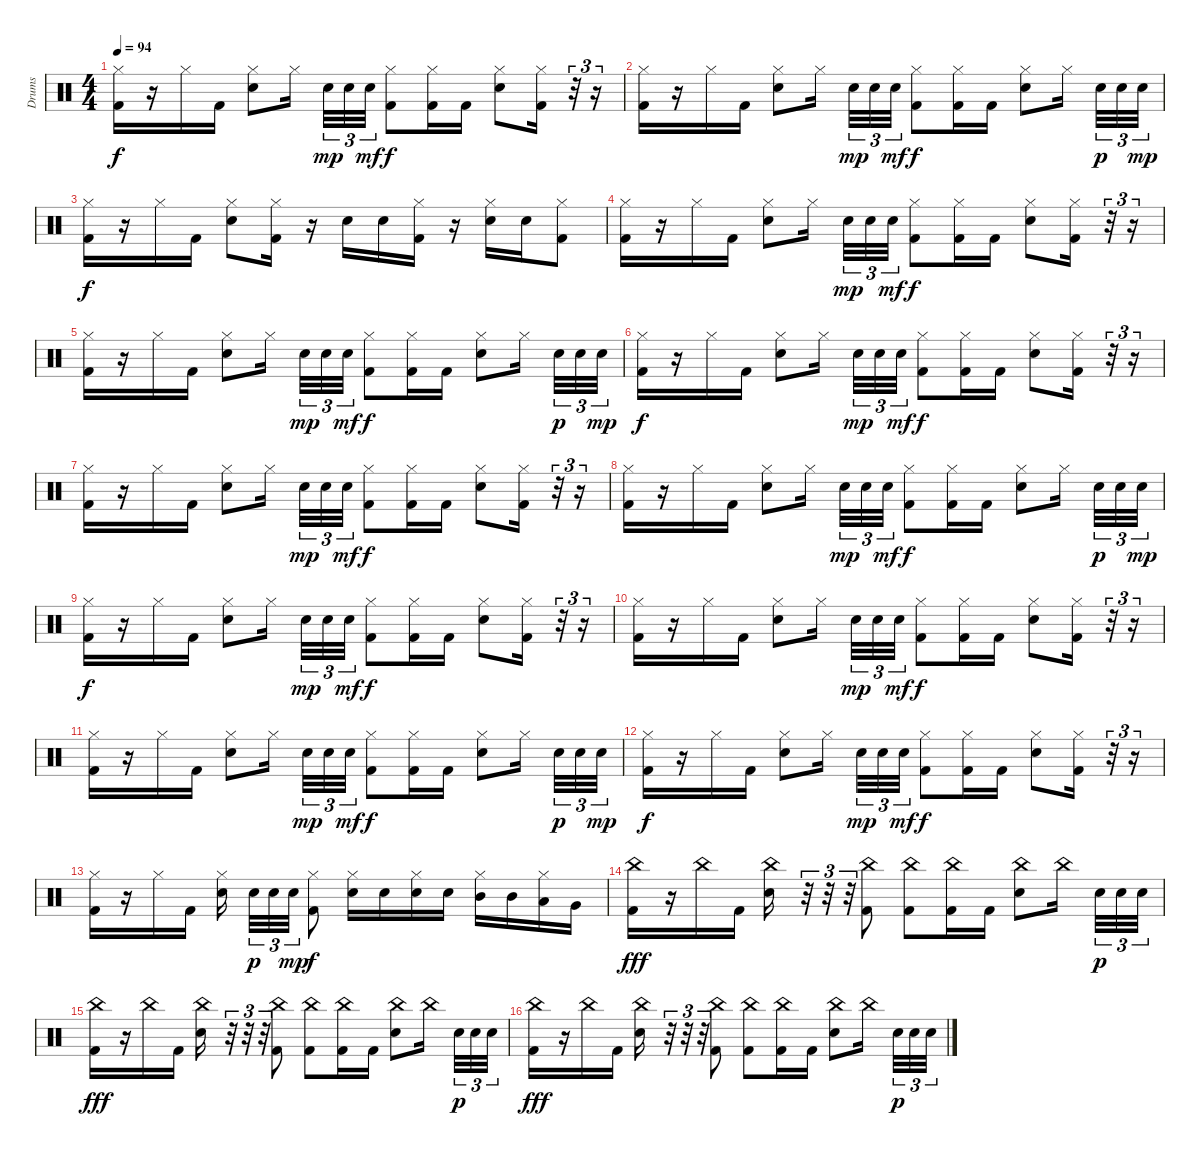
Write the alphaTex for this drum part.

\track ("Drums" "Drums") {instrument percussion}
\staff {score}
\articulation defaults
\ts (4 4)
\tempo 94
\clef neutral
\ks c
("Hi-Hat (closed)" "Kick (hit) 2").16{dy f} r.16 "Hi-Hat (closed)".16 "Kick (hit) 2".16 ("Hi-Hat (closed)" "Electric Snare (hit)").8 "Hi-Hat (closed)".16 "Electric Snare (hit)".32{tu (3 2) dy mp} "Electric Snare (hit)".32{tu (3 2)} "Electric Snare (hit)".32{tu (3 2) dy mf} ("Hi-Hat (closed)" "Kick (hit) 2").8{dy f} ("Hi-Hat (closed)" "Kick (hit) 2").16 "Kick (hit) 2".16 ("Hi-Hat (closed)" "Electric Snare (hit)").8 ("Hi-Hat (closed)" "Kick (hit) 2").16 r.32{tu (3 2)} r.16{tu (3 2)} |
("Hi-Hat (closed)" "Kick (hit) 2").16 r.16 "Hi-Hat (closed)".16 "Kick (hit) 2".16 ("Hi-Hat (closed)" "Electric Snare (hit)").8 "Hi-Hat (closed)".16 "Electric Snare (hit)".32{tu (3 2) dy mp} "Electric Snare (hit)".32{tu (3 2)} "Electric Snare (hit)".32{tu (3 2) dy mf} ("Hi-Hat (closed)" "Kick (hit) 2").8{dy f} ("Hi-Hat (closed)" "Kick (hit) 2").16 "Kick (hit) 2".16 ("Hi-Hat (closed)" "Electric Snare (hit)").8 "Hi-Hat (closed)".16 "Electric Snare (hit)".32{tu (3 2) dy p} "Electric Snare (hit)".32{tu (3 2)} "Electric Snare (hit)".32{tu (3 2) dy mp} |
("Hi-Hat (closed)" "Kick (hit) 2").16{dy f} r.16 "Hi-Hat (closed)".16 "Kick (hit) 2".16 ("Hi-Hat (closed)" "Electric Snare (hit)").8 ("Hi-Hat (closed)" "Kick (hit) 2").16 r.16 "Electric Snare (hit)".16 "Electric Snare (hit)".16 ("Hi-Hat (closed)" "Kick (hit) 2").16 r.16 ("Hi-Hat (closed)" "Electric Snare (hit)").16 "Electric Snare (hit)".16 ("Hi-Hat (closed)" "Kick (hit) 2").8 |
("Hi-Hat (closed)" "Kick (hit) 2").16 r.16 "Hi-Hat (closed)".16 "Kick (hit) 2".16 ("Hi-Hat (closed)" "Electric Snare (hit)").8 "Hi-Hat (closed)".16 "Electric Snare (hit)".32{tu (3 2) dy mp} "Electric Snare (hit)".32{tu (3 2)} "Electric Snare (hit)".32{tu (3 2) dy mf} ("Hi-Hat (closed)" "Kick (hit) 2").8{dy f} ("Hi-Hat (closed)" "Kick (hit) 2").16 "Kick (hit) 2".16 ("Hi-Hat (closed)" "Electric Snare (hit)").8 ("Hi-Hat (closed)" "Kick (hit) 2").16 r.32{tu (3 2)} r.16{tu (3 2)} |
("Hi-Hat (closed)" "Kick (hit) 2").16 r.16 "Hi-Hat (closed)".16 "Kick (hit) 2".16 ("Hi-Hat (closed)" "Electric Snare (hit)").8 "Hi-Hat (closed)".16 "Electric Snare (hit)".32{tu (3 2) dy mp} "Electric Snare (hit)".32{tu (3 2)} "Electric Snare (hit)".32{tu (3 2) dy mf} ("Hi-Hat (closed)" "Kick (hit) 2").8{dy f} ("Hi-Hat (closed)" "Kick (hit) 2").16 "Kick (hit) 2".16 ("Hi-Hat (closed)" "Electric Snare (hit)").8 "Hi-Hat (closed)".16 "Electric Snare (hit)".32{tu (3 2) dy p} "Electric Snare (hit)".32{tu (3 2)} "Electric Snare (hit)".32{tu (3 2) dy mp} |
("Hi-Hat (closed)" "Kick (hit) 2").16{dy f} r.16 "Hi-Hat (closed)".16 "Kick (hit) 2".16 ("Hi-Hat (closed)" "Electric Snare (hit)").8 "Hi-Hat (closed)".16 "Electric Snare (hit)".32{tu (3 2) dy mp} "Electric Snare (hit)".32{tu (3 2)} "Electric Snare (hit)".32{tu (3 2) dy mf} ("Hi-Hat (closed)" "Kick (hit) 2").8{dy f} ("Hi-Hat (closed)" "Kick (hit) 2").16 "Kick (hit) 2".16 ("Hi-Hat (closed)" "Electric Snare (hit)").8 ("Hi-Hat (closed)" "Kick (hit) 2").16 r.32{tu (3 2)} r.16{tu (3 2)} |
("Hi-Hat (closed)" "Kick (hit) 2").16 r.16 "Hi-Hat (closed)".16 "Kick (hit) 2".16 ("Hi-Hat (closed)" "Electric Snare (hit)").8 "Hi-Hat (closed)".16 "Electric Snare (hit)".32{tu (3 2) dy mp} "Electric Snare (hit)".32{tu (3 2)} "Electric Snare (hit)".32{tu (3 2) dy mf} ("Hi-Hat (closed)" "Kick (hit) 2").8{dy f} ("Hi-Hat (closed)" "Kick (hit) 2").16 "Kick (hit) 2".16 ("Hi-Hat (closed)" "Electric Snare (hit)").8 ("Hi-Hat (closed)" "Kick (hit) 2").16 r.32{tu (3 2)} r.16{tu (3 2)} |
("Hi-Hat (closed)" "Kick (hit) 2").16 r.16 "Hi-Hat (closed)".16 "Kick (hit) 2".16 ("Hi-Hat (closed)" "Electric Snare (hit)").8 "Hi-Hat (closed)".16 "Electric Snare (hit)".32{tu (3 2) dy mp} "Electric Snare (hit)".32{tu (3 2)} "Electric Snare (hit)".32{tu (3 2) dy mf} ("Hi-Hat (closed)" "Kick (hit) 2").8{dy f} ("Hi-Hat (closed)" "Kick (hit) 2").16 "Kick (hit) 2".16 ("Hi-Hat (closed)" "Electric Snare (hit)").8 "Hi-Hat (closed)".16 "Electric Snare (hit)".32{tu (3 2) dy p} "Electric Snare (hit)".32{tu (3 2)} "Electric Snare (hit)".32{tu (3 2) dy mp} |
("Hi-Hat (closed)" "Kick (hit) 2").16{dy f} r.16 "Hi-Hat (closed)".16 "Kick (hit) 2".16 ("Hi-Hat (closed)" "Electric Snare (hit)").8 "Hi-Hat (closed)".16 "Electric Snare (hit)".32{tu (3 2) dy mp} "Electric Snare (hit)".32{tu (3 2)} "Electric Snare (hit)".32{tu (3 2) dy mf} ("Hi-Hat (closed)" "Kick (hit) 2").8{dy f} ("Hi-Hat (closed)" "Kick (hit) 2").16 "Kick (hit) 2".16 ("Hi-Hat (closed)" "Electric Snare (hit)").8 ("Hi-Hat (closed)" "Kick (hit) 2").16 r.32{tu (3 2)} r.16{tu (3 2)} |
("Hi-Hat (closed)" "Kick (hit) 2").16 r.16 "Hi-Hat (closed)".16 "Kick (hit) 2".16 ("Hi-Hat (closed)" "Electric Snare (hit)").8 "Hi-Hat (closed)".16 "Electric Snare (hit)".32{tu (3 2) dy mp} "Electric Snare (hit)".32{tu (3 2)} "Electric Snare (hit)".32{tu (3 2) dy mf} ("Hi-Hat (closed)" "Kick (hit) 2").8{dy f} ("Hi-Hat (closed)" "Kick (hit) 2").16 "Kick (hit) 2".16 ("Hi-Hat (closed)" "Electric Snare (hit)").8 ("Hi-Hat (closed)" "Kick (hit) 2").16 r.32{tu (3 2)} r.16{tu (3 2)} |
("Hi-Hat (closed)" "Kick (hit) 2").16 r.16 "Hi-Hat (closed)".16 "Kick (hit) 2".16 ("Hi-Hat (closed)" "Electric Snare (hit)").8 "Hi-Hat (closed)".16 "Electric Snare (hit)".32{tu (3 2) dy mp} "Electric Snare (hit)".32{tu (3 2)} "Electric Snare (hit)".32{tu (3 2) dy mf} ("Hi-Hat (closed)" "Kick (hit) 2").8{dy f} ("Hi-Hat (closed)" "Kick (hit) 2").16 "Kick (hit) 2".16 ("Hi-Hat (closed)" "Electric Snare (hit)").8 "Hi-Hat (closed)".16 "Electric Snare (hit)".32{tu (3 2) dy p} "Electric Snare (hit)".32{tu (3 2)} "Electric Snare (hit)".32{tu (3 2) dy mp} |
("Hi-Hat (closed)" "Kick (hit) 2").16{dy f} r.16 "Hi-Hat (closed)".16 "Kick (hit) 2".16 ("Hi-Hat (closed)" "Electric Snare (hit)").8 "Hi-Hat (closed)".16 "Electric Snare (hit)".32{tu (3 2) dy mp} "Electric Snare (hit)".32{tu (3 2)} "Electric Snare (hit)".32{tu (3 2) dy mf} ("Hi-Hat (closed)" "Kick (hit) 2").8{dy f} ("Hi-Hat (closed)" "Kick (hit) 2").16 "Kick (hit) 2".16 ("Hi-Hat (closed)" "Electric Snare (hit)").8 ("Hi-Hat (closed)" "Kick (hit) 2").16 r.32{tu (3 2)} r.16{tu (3 2)} |
("Hi-Hat (closed)" "Kick (hit) 2").16 r.16 "Hi-Hat (closed)".16 "Kick (hit) 2".16 ("Hi-Hat (closed)" "Electric Snare (hit)").16 "Electric Snare (hit)".32{tu (3 2) dy p} "Electric Snare (hit)".32{tu (3 2)} "Electric Snare (hit)".32{tu (3 2) dy mp} ("Hi-Hat (closed)" "Kick (hit) 2").8{dy f} ("Hi-Hat (closed)" "Electric Snare (hit)").16 "Electric Snare (hit)".16 ("Hi-Hat (closed)" "Electric Snare (hit)").16 "Electric Snare (hit)".16 ("Hi-Hat (closed)" "Mid Tom (hit)").16 "Mid Tom (hit)".16 ("Hi-Hat (closed)" "Low Tom (hit)").16 "Very Low Tom (hit)".16 |
("China (hit)" "Kick (hit) 2").16{dy fff} r.16 "China (hit)".16 "Kick (hit) 2".16 ("China (hit)" "Electric Snare (hit)").16 r.32{tu (3 2)} r.32{tu (3 2)} r.32{tu (3 2)} ("China (hit)" "Kick (hit) 2").8 ("China (hit)" "Kick (hit) 2").8 ("China (hit)" "Kick (hit) 2").16 "Kick (hit) 2".16 ("China (hit)" "Electric Snare (hit)").8 "China (hit)".16 "Electric Snare (hit)".32{tu (3 2) dy p} "Electric Snare (hit)".32{tu (3 2)} "Electric Snare (hit)".32{tu (3 2)} |
("China (hit)" "Kick (hit) 2").16{dy fff} r.16 "China (hit)".16 "Kick (hit) 2".16 ("China (hit)" "Electric Snare (hit)").16 r.32{tu (3 2)} r.32{tu (3 2)} r.32{tu (3 2)} ("China (hit)" "Kick (hit) 2").8 ("China (hit)" "Kick (hit) 2").8 ("China (hit)" "Kick (hit) 2").16 "Kick (hit) 2".16 ("China (hit)" "Electric Snare (hit)").8 "China (hit)".16 "Electric Snare (hit)".32{tu (3 2) dy p} "Electric Snare (hit)".32{tu (3 2)} "Electric Snare (hit)".32{tu (3 2)} |
("China (hit)" "Kick (hit) 2").16{dy fff} r.16 "China (hit)".16 "Kick (hit) 2".16 ("China (hit)" "Electric Snare (hit)").16 r.32{tu (3 2)} r.32{tu (3 2)} r.32{tu (3 2)} ("China (hit)" "Kick (hit) 2").8 ("China (hit)" "Kick (hit) 2").8 ("China (hit)" "Kick (hit) 2").16 "Kick (hit) 2".16 ("China (hit)" "Electric Snare (hit)").8 "China (hit)".16 "Electric Snare (hit)".32{tu (3 2) dy p} "Electric Snare (hit)".32{tu (3 2)} "Electric Snare (hit)".32{tu (3 2)}
